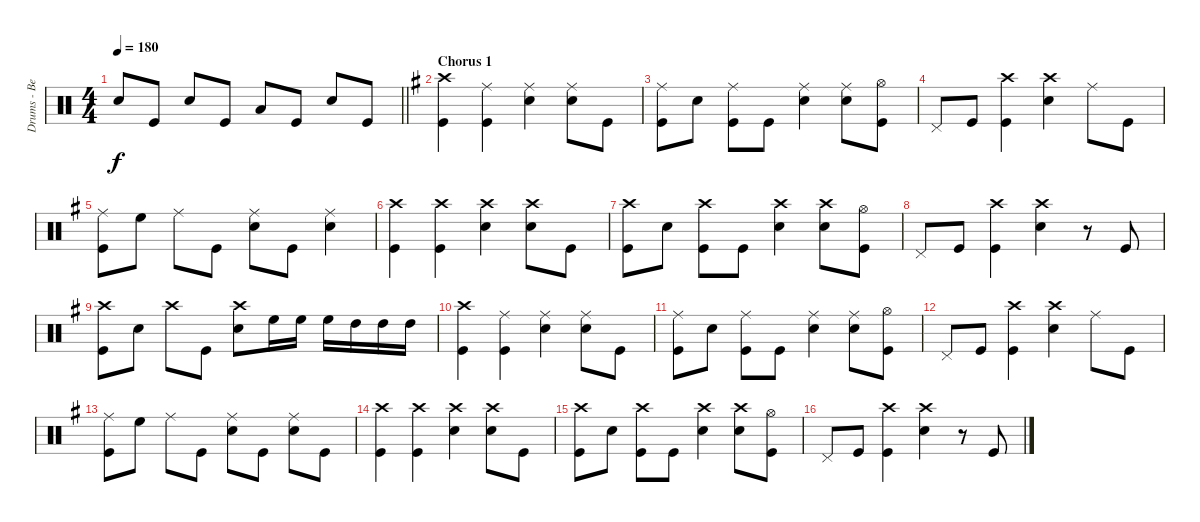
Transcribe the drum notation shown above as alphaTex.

\track ("Drums - Ben Johnston" "Drums - Be") {instrument percussion}
\staff {score}
\articulation defaults
\ts (4 4)
\tempo 180
\clef neutral
\barLineRight lightlight
\ks c "Snare (hit) 2".8{dy f} "Kick (hit)".8 "Snare (hit) 2".8 "Kick (hit)".8 "Low Tom (hit)".8 "Kick (hit)".8 "Snare (hit) 2".8 "Kick (hit)".8
|
\section ("" "Chorus 1")
\ks eminor
("Crash high (hit)" "Kick (hit)").4 ("Ride (middle)" "Kick (hit)").4 ("Ride (middle)" "Snare (hit) 2").4 ("Ride (middle)" "Snare (hit) 2").8 "Kick (hit)".8 |
("Ride (middle)" "Kick (hit)").8 "Snare (hit) 2".8 ("Ride (middle)" "Kick (hit)").8 "Kick (hit)".8 ("Ride (middle)" "Snare (hit) 2").4 ("Ride (middle)" "Snare (hit) 2").8 ("Hi-Hat (open)" "Kick (hit)").8 |
"Pedal Hi-Hat (hit)".8 "Kick (hit)".8 ("Crash high (hit)" "Kick (hit)").4 ("Crash high (hit)" "Snare (hit) 2").4 "Ride (middle)".8 "Kick (hit)".8 |
("Ride (middle)" "Kick (hit)").8 "High Floor Tom (hit)".8 "Ride (middle)".8 "Kick (hit)".8 ("Ride (middle)" "Snare (hit) 2").8 "Kick (hit)".8 ("Ride (middle)" "Snare (hit) 2").4 |
("Crash high (hit)" "Kick (hit)").4 ("Crash high (hit)" "Kick (hit)").4 ("Crash high (hit)" "Snare (hit) 2").4 ("Crash high (hit)" "Snare (hit) 2").8 "Kick (hit)".8 |
("Crash high (hit)" "Kick (hit)").8 "Snare (hit) 2".8 ("Crash high (hit)" "Kick (hit)").8 "Kick (hit)".8 ("Crash high (hit)" "Snare (hit) 2").4 ("Crash high (hit)" "Snare (hit) 2").8 ("Hi-Hat (open)" "Kick (hit)").8 |
"Pedal Hi-Hat (hit)".8 "Kick (hit)".8 ("Crash high (hit)" "Kick (hit)").4 ("Crash high (hit)" "Snare (hit) 2").4 r.8 "Kick (hit)".8 |
("Crash high (hit)" "Kick (hit)").8 "Snare (hit) 2".8 "Crash high (hit)".8 "Kick (hit)".8 ("Crash high (hit)" "Snare (hit) 2").8 "High Floor Tom (hit)".16 "High Floor Tom (hit)".16 "High Floor Tom (hit)".16 "High Tom (hit)".16 "High Tom (hit)".16 "High Tom (hit)".16 |
("Crash high (hit)" "Kick (hit)").4 ("Ride (middle)" "Kick (hit)").4 ("Ride (middle)" "Snare (hit) 2").4 ("Ride (middle)" "Snare (hit) 2").8 "Kick (hit)".8 |
("Ride (middle)" "Kick (hit)").8 "Snare (hit) 2".8 ("Ride (middle)" "Kick (hit)").8 "Kick (hit)".8 ("Ride (middle)" "Snare (hit) 2").4 ("Ride (middle)" "Snare (hit) 2").8 ("Hi-Hat (open)" "Kick (hit)").8 |
"Pedal Hi-Hat (hit)".8 "Kick (hit)".8 ("Crash high (hit)" "Kick (hit)").4 ("Crash high (hit)" "Snare (hit) 2").4 "Ride (middle)".8 "Kick (hit)".8 |
("Ride (middle)" "Kick (hit)").8 "High Floor Tom (hit)".8 "Ride (middle)".8 "Kick (hit)".8 ("Ride (middle)" "Snare (hit) 2").8 "Kick (hit)".8 ("Ride (middle)" "Snare (hit) 2").8 "Kick (hit)".8 |
("Crash high (hit)" "Kick (hit)").4 ("Crash high (hit)" "Kick (hit)").4 ("Crash high (hit)" "Snare (hit) 2").4 ("Crash high (hit)" "Snare (hit) 2").8 "Kick (hit)".8 |
("Crash high (hit)" "Kick (hit)").8 "Snare (hit) 2".8 ("Crash high (hit)" "Kick (hit)").8 "Kick (hit)".8 ("Crash high (hit)" "Snare (hit) 2").4 ("Crash high (hit)" "Snare (hit) 2").8 ("Hi-Hat (open)" "Kick (hit)").8 |
"Pedal Hi-Hat (hit)".8 "Kick (hit)".8 ("Crash high (hit)" "Kick (hit)").4 ("Crash high (hit)" "Snare (hit) 2").4 r.8 "Kick (hit)".8
